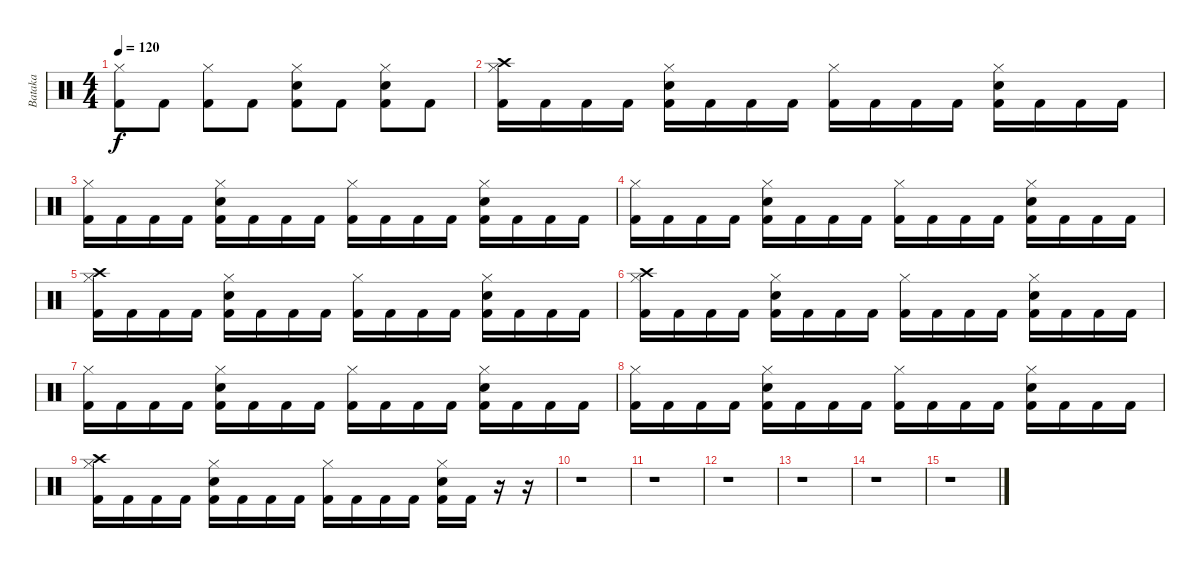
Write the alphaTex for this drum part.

\track ("Bataka" "Bataka") {instrument percussion}
\staff {score}
\articulation defaults
\ts (4 4)
\tempo 120
\clef neutral
\ks c
("Hi-Hat (closed)" "Kick (hit) 2").8{dy f} "Kick (hit) 2".8 ("Hi-Hat (closed)" "Kick (hit) 2").8 "Kick (hit) 2".8 ("Hi-Hat (closed)" "Snare (hit) 2" "Kick (hit) 2").8 "Kick (hit) 2".8 ("Hi-Hat (closed)" "Snare (hit) 2" "Kick (hit) 2").8 "Kick (hit) 2".8 |
("Hi-Hat (closed)" "Crash high (hit)" "Kick (hit) 2").16 "Kick (hit) 2".16 "Kick (hit) 2".16 "Kick (hit) 2".16 ("Hi-Hat (closed)" "Snare (hit) 2" "Kick (hit) 2").16 "Kick (hit) 2".16 "Kick (hit) 2".16 "Kick (hit) 2".16 ("Hi-Hat (closed)" "Kick (hit) 2").16 "Kick (hit) 2".16 "Kick (hit) 2".16 "Kick (hit) 2".16 ("Hi-Hat (closed)" "Snare (hit) 2" "Kick (hit) 2").16 "Kick (hit) 2".16 "Kick (hit) 2".16 "Kick (hit) 2".16 |
("Hi-Hat (closed)" "Kick (hit) 2").16 "Kick (hit) 2".16 "Kick (hit) 2".16 "Kick (hit) 2".16 ("Hi-Hat (closed)" "Snare (hit) 2" "Kick (hit) 2").16 "Kick (hit) 2".16 "Kick (hit) 2".16 "Kick (hit) 2".16 ("Hi-Hat (closed)" "Kick (hit) 2").16 "Kick (hit) 2".16 "Kick (hit) 2".16 "Kick (hit) 2".16 ("Hi-Hat (closed)" "Snare (hit) 2" "Kick (hit) 2").16 "Kick (hit) 2".16 "Kick (hit) 2".16 "Kick (hit) 2".16 |
("Hi-Hat (closed)" "Kick (hit) 2").16 "Kick (hit) 2".16 "Kick (hit) 2".16 "Kick (hit) 2".16 ("Hi-Hat (closed)" "Snare (hit) 2" "Kick (hit) 2").16 "Kick (hit) 2".16 "Kick (hit) 2".16 "Kick (hit) 2".16 ("Hi-Hat (closed)" "Kick (hit) 2").16 "Kick (hit) 2".16 "Kick (hit) 2".16 "Kick (hit) 2".16 ("Hi-Hat (closed)" "Snare (hit) 2" "Kick (hit) 2").16 "Kick (hit) 2".16 "Kick (hit) 2".16 "Kick (hit) 2".16 |
("Hi-Hat (closed)" "Crash high (hit)" "Kick (hit) 2").16 "Kick (hit) 2".16 "Kick (hit) 2".16 "Kick (hit) 2".16 ("Hi-Hat (closed)" "Snare (hit) 2" "Kick (hit) 2").16 "Kick (hit) 2".16 "Kick (hit) 2".16 "Kick (hit) 2".16 ("Hi-Hat (closed)" "Kick (hit) 2").16 "Kick (hit) 2".16 "Kick (hit) 2".16 "Kick (hit) 2".16 ("Hi-Hat (closed)" "Snare (hit) 2" "Kick (hit) 2").16 "Kick (hit) 2".16 "Kick (hit) 2".16 "Kick (hit) 2".16 |
("Hi-Hat (closed)" "Crash high (hit)" "Kick (hit) 2").16 "Kick (hit) 2".16 "Kick (hit) 2".16 "Kick (hit) 2".16 ("Hi-Hat (closed)" "Snare (hit) 2" "Kick (hit) 2").16 "Kick (hit) 2".16 "Kick (hit) 2".16 "Kick (hit) 2".16 ("Hi-Hat (closed)" "Kick (hit) 2").16 "Kick (hit) 2".16 "Kick (hit) 2".16 "Kick (hit) 2".16 ("Hi-Hat (closed)" "Snare (hit) 2" "Kick (hit) 2").16 "Kick (hit) 2".16 "Kick (hit) 2".16 "Kick (hit) 2".16 |
("Hi-Hat (closed)" "Kick (hit) 2").16 "Kick (hit) 2".16 "Kick (hit) 2".16 "Kick (hit) 2".16 ("Hi-Hat (closed)" "Snare (hit) 2" "Kick (hit) 2").16 "Kick (hit) 2".16 "Kick (hit) 2".16 "Kick (hit) 2".16 ("Hi-Hat (closed)" "Kick (hit) 2").16 "Kick (hit) 2".16 "Kick (hit) 2".16 "Kick (hit) 2".16 ("Hi-Hat (closed)" "Snare (hit) 2" "Kick (hit) 2").16 "Kick (hit) 2".16 "Kick (hit) 2".16 "Kick (hit) 2".16 |
("Hi-Hat (closed)" "Kick (hit) 2").16 "Kick (hit) 2".16 "Kick (hit) 2".16 "Kick (hit) 2".16 ("Hi-Hat (closed)" "Snare (hit) 2" "Kick (hit) 2").16 "Kick (hit) 2".16 "Kick (hit) 2".16 "Kick (hit) 2".16 ("Hi-Hat (closed)" "Kick (hit) 2").16 "Kick (hit) 2".16 "Kick (hit) 2".16 "Kick (hit) 2".16 ("Hi-Hat (closed)" "Snare (hit) 2" "Kick (hit) 2").16 "Kick (hit) 2".16 "Kick (hit) 2".16 "Kick (hit) 2".16 |
("Hi-Hat (closed)" "Crash high (hit)" "Kick (hit) 2").16 "Kick (hit) 2".16 "Kick (hit) 2".16 "Kick (hit) 2".16 ("Hi-Hat (closed)" "Snare (hit) 2" "Kick (hit) 2").16 "Kick (hit) 2".16 "Kick (hit) 2".16 "Kick (hit) 2".16 ("Hi-Hat (closed)" "Kick (hit) 2").16 "Kick (hit) 2".16 "Kick (hit) 2".16 "Kick (hit) 2".16 ("Hi-Hat (closed)" "Snare (hit) 2" "Kick (hit) 2").16 "Kick (hit) 2".16 r.16 r.16 |
r.1 |
r.1 |
r.1 |
r.1 |
r.1 |
r.1
